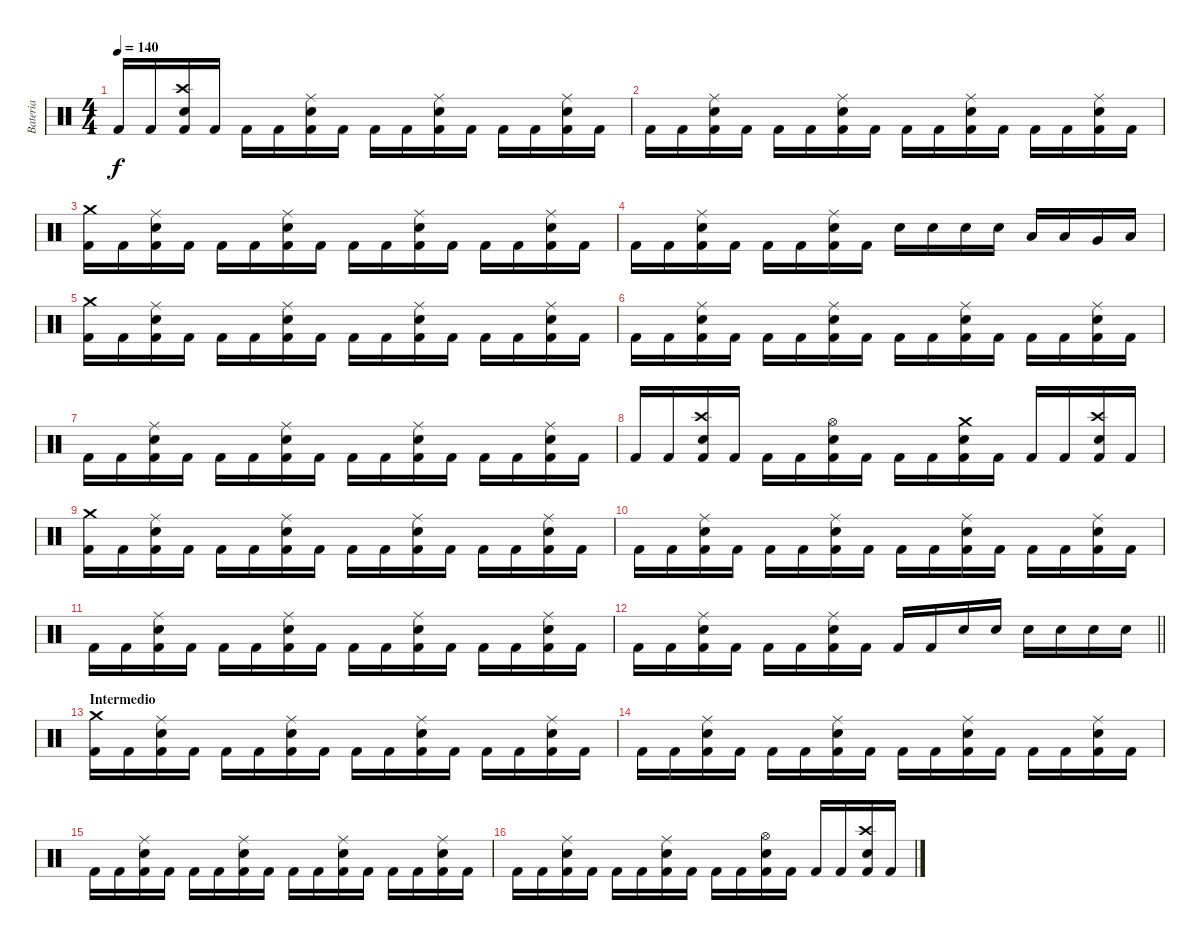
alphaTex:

\track ("Bateria" "Bateria") {instrument percussion}
\staff {score}
\articulation defaults
\ts (4 4)
\tempo 140
\clef neutral
\ks c "Kick (hit) 2".16{dy f} "Kick (hit) 2".16
("Crash high (hit)" "Snare (hit) 2" "Kick (hit) 2").16 "Kick (hit) 2".16 "Kick (hit) 2".16 "Kick (hit) 2".16 ("Ride (middle)" "Snare (hit) 2" "Kick (hit) 2").16 "Kick (hit) 2".16 "Kick (hit) 2".16 "Kick (hit) 2".16 ("Ride (middle)" "Snare (hit) 2" "Kick (hit) 2").16 "Kick (hit) 2".16 "Kick (hit) 2".16 "Kick (hit) 2".16 ("Ride (middle)" "Snare (hit) 2" "Kick (hit) 2").16 "Kick (hit) 2".16 |
"Kick (hit) 2".16 "Kick (hit) 2".16 ("Ride (middle)" "Snare (hit) 2" "Kick (hit) 2").16 "Kick (hit) 2".16 "Kick (hit) 2".16 "Kick (hit) 2".16 ("Ride (middle)" "Snare (hit) 2" "Kick (hit) 2").16 "Kick (hit) 2".16 "Kick (hit) 2".16 "Kick (hit) 2".16 ("Ride (middle)" "Snare (hit) 2" "Kick (hit) 2").16 "Kick (hit) 2".16 "Kick (hit) 2".16 "Kick (hit) 2".16 ("Ride (middle)" "Snare (hit) 2" "Kick (hit) 2").16 "Kick (hit) 2".16 |
("Crash medium (hit)" "Kick (hit) 2").16 "Kick (hit) 2".16 ("Ride (middle)" "Snare (hit) 2" "Kick (hit) 2").16 "Kick (hit) 2".16 "Kick (hit) 2".16 "Kick (hit) 2".16 ("Ride (middle)" "Snare (hit) 2" "Kick (hit) 2").16 "Kick (hit) 2".16 "Kick (hit) 2".16 "Kick (hit) 2".16 ("Ride (middle)" "Snare (hit) 2" "Kick (hit) 2").16 "Kick (hit) 2".16 "Kick (hit) 2".16 "Kick (hit) 2".16 ("Ride (middle)" "Snare (hit) 2" "Kick (hit) 2").16 "Kick (hit) 2".16 |
"Kick (hit) 2".16 "Kick (hit) 2".16 ("Ride (middle)" "Snare (hit) 2" "Kick (hit) 2").16 "Kick (hit) 2".16 "Kick (hit) 2".16 "Kick (hit) 2".16 ("Ride (middle)" "Snare (hit) 2" "Kick (hit) 2").16 "Kick (hit) 2".16 "Snare (hit) 2".16 "Snare (hit) 2".16 "Snare (hit) 2".16 "Snare (hit) 2".16 "Low Tom (hit)".16 "Low Tom (hit)".16 "Very Low Tom (hit)".16 "Low Floor Tom (hit)".16 |
("Crash medium (hit)" "Kick (hit) 2").16 "Kick (hit) 2".16 ("Ride (middle)" "Snare (hit) 2" "Kick (hit) 2").16 "Kick (hit) 2".16 "Kick (hit) 2".16 "Kick (hit) 2".16 ("Ride (middle)" "Snare (hit) 2" "Kick (hit) 2").16 "Kick (hit) 2".16 "Kick (hit) 2".16 "Kick (hit) 2".16 ("Ride (middle)" "Snare (hit) 2" "Kick (hit) 2").16 "Kick (hit) 2".16 "Kick (hit) 2".16 "Kick (hit) 2".16 ("Ride (middle)" "Snare (hit) 2" "Kick (hit) 2").16 "Kick (hit) 2".16 |
"Kick (hit) 2".16 "Kick (hit) 2".16 ("Ride (middle)" "Snare (hit) 2" "Kick (hit) 2").16 "Kick (hit) 2".16 "Kick (hit) 2".16 "Kick (hit) 2".16 ("Ride (middle)" "Snare (hit) 2" "Kick (hit) 2").16 "Kick (hit) 2".16 "Kick (hit) 2".16 "Kick (hit) 2".16 ("Ride (middle)" "Snare (hit) 2" "Kick (hit) 2").16 "Kick (hit) 2".16 "Kick (hit) 2".16 "Kick (hit) 2".16 ("Ride (middle)" "Snare (hit) 2" "Kick (hit) 2").16 "Kick (hit) 2".16 |
"Kick (hit) 2".16 "Kick (hit) 2".16 ("Ride (middle)" "Snare (hit) 2" "Kick (hit) 2").16 "Kick (hit) 2".16 "Kick (hit) 2".16 "Kick (hit) 2".16 ("Ride (middle)" "Snare (hit) 2" "Kick (hit) 2").16 "Kick (hit) 2".16 "Kick (hit) 2".16 "Kick (hit) 2".16 ("Ride (middle)" "Snare (hit) 2" "Kick (hit) 2").16 "Kick (hit) 2".16 "Kick (hit) 2".16 "Kick (hit) 2".16 ("Ride (middle)" "Snare (hit) 2" "Kick (hit) 2").16 "Kick (hit) 2".16 |
"Kick (hit) 2".16 "Kick (hit) 2".16 ("Crash high (hit)" "Snare (hit) 2" "Kick (hit) 2").16 "Kick (hit) 2".16 "Kick (hit) 2".16 "Kick (hit) 2".16 ("Hi-Hat (open)" "Snare (hit) 2" "Kick (hit) 2").16 "Kick (hit) 2".16 "Kick (hit) 2".16 "Kick (hit) 2".16 ("Crash medium (hit)" "Snare (hit) 2" "Kick (hit) 2").16 "Kick (hit) 2".16 "Kick (hit) 2".16 "Kick (hit) 2".16 ("Crash high (hit)" "Snare (hit) 2" "Kick (hit) 2").16 "Kick (hit) 2".16 |
("Crash medium (hit)" "Kick (hit) 2").16 "Kick (hit) 2".16 ("Ride (middle)" "Snare (hit) 2" "Kick (hit) 2").16 "Kick (hit) 2".16 "Kick (hit) 2".16 "Kick (hit) 2".16 ("Ride (middle)" "Snare (hit) 2" "Kick (hit) 2").16 "Kick (hit) 2".16 "Kick (hit) 2".16 "Kick (hit) 2".16 ("Ride (middle)" "Snare (hit) 2" "Kick (hit) 2").16 "Kick (hit) 2".16 "Kick (hit) 2".16 "Kick (hit) 2".16 ("Ride (middle)" "Snare (hit) 2" "Kick (hit) 2").16 "Kick (hit) 2".16 |
"Kick (hit) 2".16 "Kick (hit) 2".16 ("Ride (middle)" "Snare (hit) 2" "Kick (hit) 2").16 "Kick (hit) 2".16 "Kick (hit) 2".16 "Kick (hit) 2".16 ("Ride (middle)" "Snare (hit) 2" "Kick (hit) 2").16 "Kick (hit) 2".16 "Kick (hit) 2".16 "Kick (hit) 2".16 ("Ride (middle)" "Snare (hit) 2" "Kick (hit) 2").16 "Kick (hit) 2".16 "Kick (hit) 2".16 "Kick (hit) 2".16 ("Ride (middle)" "Snare (hit) 2" "Kick (hit) 2").16 "Kick (hit) 2".16 |
"Kick (hit) 2".16 "Kick (hit) 2".16 ("Ride (middle)" "Snare (hit) 2" "Kick (hit) 2").16 "Kick (hit) 2".16 "Kick (hit) 2".16 "Kick (hit) 2".16 ("Ride (middle)" "Snare (hit) 2" "Kick (hit) 2").16 "Kick (hit) 2".16 "Kick (hit) 2".16 "Kick (hit) 2".16 ("Ride (middle)" "Snare (hit) 2" "Kick (hit) 2").16 "Kick (hit) 2".16 "Kick (hit) 2".16 "Kick (hit) 2".16 ("Ride (middle)" "Snare (hit) 2" "Kick (hit) 2").16 "Kick (hit) 2".16 |
\barLineRight lightlight "Kick (hit) 2".16 "Kick (hit) 2".16
("Ride (middle)" "Snare (hit) 2" "Kick (hit) 2").16 "Kick (hit) 2".16 "Kick (hit) 2".16 "Kick (hit) 2".16 ("Ride (middle)" "Snare (hit) 2" "Kick (hit) 2").16 "Kick (hit) 2".16 "Kick (hit) 2".16 "Kick (hit) 2".16 "Snare (hit) 2".16 "Snare (hit) 2".16 "Snare (hit) 2".16 "Snare (hit) 2".16 "Snare (hit) 2".16 "Snare (hit) 2".16 |
\section ("" "Intermedio")
("Crash medium (hit)" "Kick (hit) 2").16 "Kick (hit) 2".16 ("Ride (middle)" "Snare (hit) 2" "Kick (hit) 2").16 "Kick (hit) 2".16 "Kick (hit) 2".16 "Kick (hit) 2".16 ("Ride (middle)" "Snare (hit) 2" "Kick (hit) 2").16 "Kick (hit) 2".16 "Kick (hit) 2".16 "Kick (hit) 2".16 ("Ride (middle)" "Snare (hit) 2" "Kick (hit) 2").16 "Kick (hit) 2".16 "Kick (hit) 2".16 "Kick (hit) 2".16 ("Ride (middle)" "Snare (hit) 2" "Kick (hit) 2").16 "Kick (hit) 2".16 |
"Kick (hit) 2".16 "Kick (hit) 2".16 ("Ride (middle)" "Snare (hit) 2" "Kick (hit) 2").16 "Kick (hit) 2".16 "Kick (hit) 2".16 "Kick (hit) 2".16 ("Ride (middle)" "Snare (hit) 2" "Kick (hit) 2").16 "Kick (hit) 2".16 "Kick (hit) 2".16 "Kick (hit) 2".16 ("Ride (middle)" "Snare (hit) 2" "Kick (hit) 2").16 "Kick (hit) 2".16 "Kick (hit) 2".16 "Kick (hit) 2".16 ("Ride (middle)" "Snare (hit) 2" "Kick (hit) 2").16 "Kick (hit) 2".16 |
"Kick (hit) 2".16 "Kick (hit) 2".16 ("Ride (middle)" "Snare (hit) 2" "Kick (hit) 2").16 "Kick (hit) 2".16 "Kick (hit) 2".16 "Kick (hit) 2".16 ("Ride (middle)" "Snare (hit) 2" "Kick (hit) 2").16 "Kick (hit) 2".16 "Kick (hit) 2".16 "Kick (hit) 2".16 ("Ride (middle)" "Snare (hit) 2" "Kick (hit) 2").16 "Kick (hit) 2".16 "Kick (hit) 2".16 "Kick (hit) 2".16 ("Ride (middle)" "Snare (hit) 2" "Kick (hit) 2").16 "Kick (hit) 2".16 |
"Kick (hit) 2".16 "Kick (hit) 2".16 ("Ride (middle)" "Snare (hit) 2" "Kick (hit) 2").16 "Kick (hit) 2".16 "Kick (hit) 2".16 "Kick (hit) 2".16 ("Ride (middle)" "Snare (hit) 2" "Kick (hit) 2").16 "Kick (hit) 2".16 "Kick (hit) 2".16 "Kick (hit) 2".16 ("Hi-Hat (open)" "Snare (hit) 2" "Kick (hit) 2").16 "Kick (hit) 2".16 "Kick (hit) 2".16 "Kick (hit) 2".16 ("Crash high (hit)" "Snare (hit) 2" "Kick (hit) 2").16 "Kick (hit) 2".16
